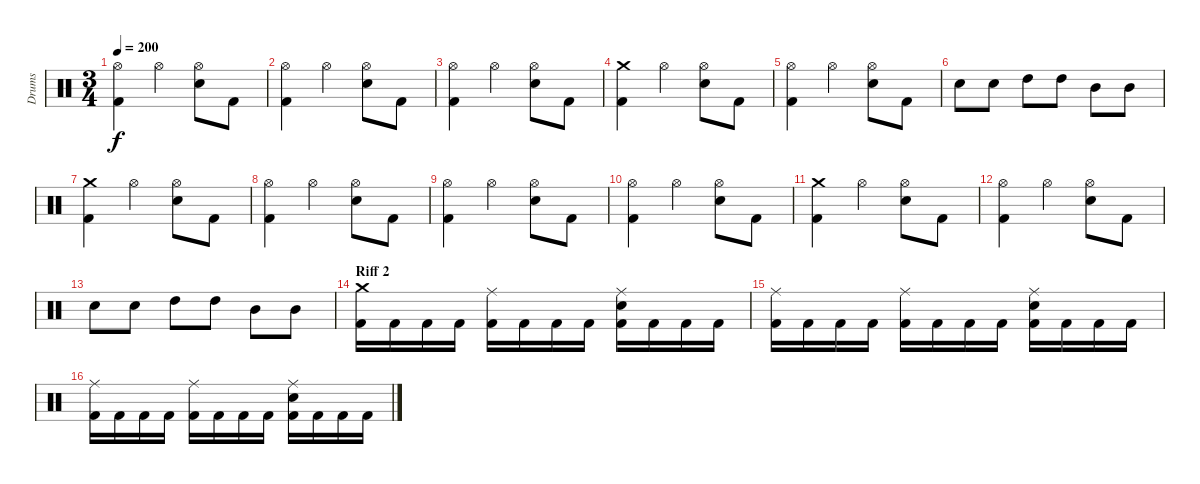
\track ("Drums" "Drums") {instrument percussion}
\staff {score}
\articulation defaults
\ts (3 4)
\tempo 200
\clef neutral
\ks c
("Hi-Hat (open)" "Kick (hit) 2").4{dy f} "Hi-Hat (open)".4 ("Hi-Hat (open)" "Electric Snare (hit)").8 "Kick (hit) 2".8 |
("Hi-Hat (open)" "Kick (hit) 2").4 "Hi-Hat (open)".4 ("Hi-Hat (open)" "Electric Snare (hit)").8 "Kick (hit) 2".8 |
("Hi-Hat (open)" "Kick (hit) 2").4 "Hi-Hat (open)".4 ("Hi-Hat (open)" "Electric Snare (hit)").8 "Kick (hit) 2".8 |
("Crash medium (hit)" "Kick (hit) 2").4 "Hi-Hat (open)".4 ("Hi-Hat (open)" "Electric Snare (hit)").8 "Kick (hit) 2".8 |
("Hi-Hat (open)" "Kick (hit) 2").4 "Hi-Hat (open)".4 ("Hi-Hat (open)" "Electric Snare (hit)").8 "Kick (hit) 2".8 |
"Electric Snare (hit)".8 "Electric Snare (hit)".8 "High Tom (hit)".8 "High Tom (hit)".8 "Mid Tom (hit)".8 "Mid Tom (hit)".8 |
("Crash medium (hit)" "Kick (hit) 2").4 "Hi-Hat (open)".4 ("Hi-Hat (open)" "Electric Snare (hit)").8 "Kick (hit) 2".8 |
("Hi-Hat (open)" "Kick (hit) 2").4 "Hi-Hat (open)".4 ("Hi-Hat (open)" "Electric Snare (hit)").8 "Kick (hit) 2".8 |
("Hi-Hat (open)" "Kick (hit) 2").4 "Hi-Hat (open)".4 ("Hi-Hat (open)" "Electric Snare (hit)").8 "Kick (hit) 2".8 |
("Hi-Hat (open)" "Kick (hit) 2").4 "Hi-Hat (open)".4 ("Hi-Hat (open)" "Electric Snare (hit)").8 "Kick (hit) 2".8 |
("Crash medium (hit)" "Kick (hit) 2").4 "Hi-Hat (open)".4 ("Hi-Hat (open)" "Electric Snare (hit)").8 "Kick (hit) 2".8 |
("Hi-Hat (open)" "Kick (hit) 2").4 "Hi-Hat (open)".4 ("Hi-Hat (open)" "Electric Snare (hit)").8 "Kick (hit) 2".8 |
"Electric Snare (hit)".8 "Electric Snare (hit)".8 "High Tom (hit)".8 "High Tom (hit)".8 "Mid Tom (hit)".8 "Mid Tom (hit)".8 |
\section ("" "Riff 2")
("Crash medium (hit)" "Kick (hit) 2").16 "Kick (hit) 2".16 "Kick (hit) 2".16 "Kick (hit) 2".16 ("Ride (middle)" "Kick (hit) 2").16 "Kick (hit) 2".16 "Kick (hit) 2".16 "Kick (hit) 2".16 ("Ride (middle)" "Electric Snare (hit)" "Kick (hit) 2").16 "Kick (hit) 2".16 "Kick (hit) 2".16 "Kick (hit) 2".16 |
("Ride (middle)" "Kick (hit) 2").16 "Kick (hit) 2".16 "Kick (hit) 2".16 "Kick (hit) 2".16 ("Ride (middle)" "Kick (hit) 2").16 "Kick (hit) 2".16 "Kick (hit) 2".16 "Kick (hit) 2".16 ("Ride (middle)" "Electric Snare (hit)" "Kick (hit) 2").16 "Kick (hit) 2".16 "Kick (hit) 2".16 "Kick (hit) 2".16 |
("Ride (middle)" "Kick (hit) 2").16 "Kick (hit) 2".16 "Kick (hit) 2".16 "Kick (hit) 2".16 ("Ride (middle)" "Kick (hit) 2").16 "Kick (hit) 2".16 "Kick (hit) 2".16 "Kick (hit) 2".16 ("Ride (middle)" "Electric Snare (hit)" "Kick (hit) 2").16 "Kick (hit) 2".16 "Kick (hit) 2".16 "Kick (hit) 2".16
